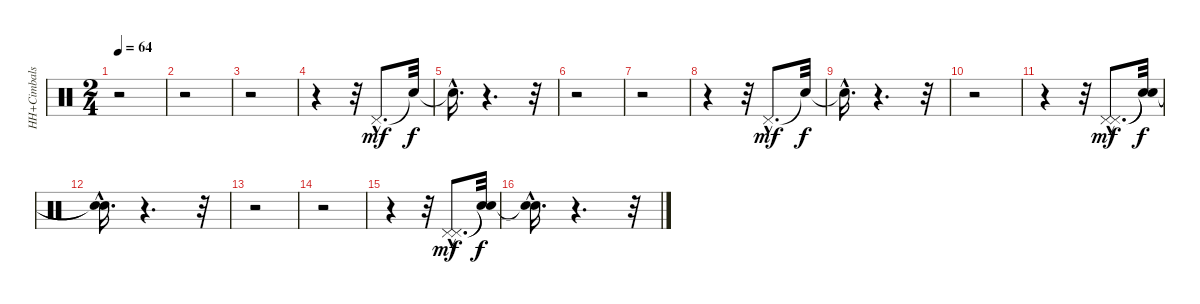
\track ("HH+Cimbals" "HH+Cimbals") {instrument percussion}
\staff {score}
\articulation defaults
\ts (2 4)
\tempo 64
\clef neutral
\ks c
r.2{dy f} |
r.2 |
r.2 |
r.4 r.32 "Pedal Hi-Hat (hit)"{hac}.8{d dy mf} "Snare (hit)"{t}.32{dy f} |
"Snare (hit)"{hac t}.16{d} r.4{d} r.32 |
r.2 |
r.2 |
r.4 r.32 "Pedal Hi-Hat (hit)"{hac}.8{d dy mf} "Snare (hit)"{t}.32{dy f} |
"Snare (hit)"{hac t}.16{d} r.4{d} r.32 |
r.2 |
r.4 r.32 ("Pedal Hi-Hat (hit)"{hac} "Pedal Hi-Hat (hit)"{hac}).8{d dy mf} ("Snare (hit)"{t} "Snare (hit)"{t}).32{dy f} |
("Snare (hit)"{hac t} "Snare (hit)"{hac t}).16{d} r.4{d} r.32 |
r.2 |
r.2 |
r.4 r.32 ("Pedal Hi-Hat (hit)"{hac} "Pedal Hi-Hat (hit)"{hac}).8{d dy mf} ("Snare (hit)"{t} "Snare (hit)"{t}).32{dy f} |
("Snare (hit)"{hac t} "Snare (hit)"{hac t}).16{d} r.4{d} r.32
